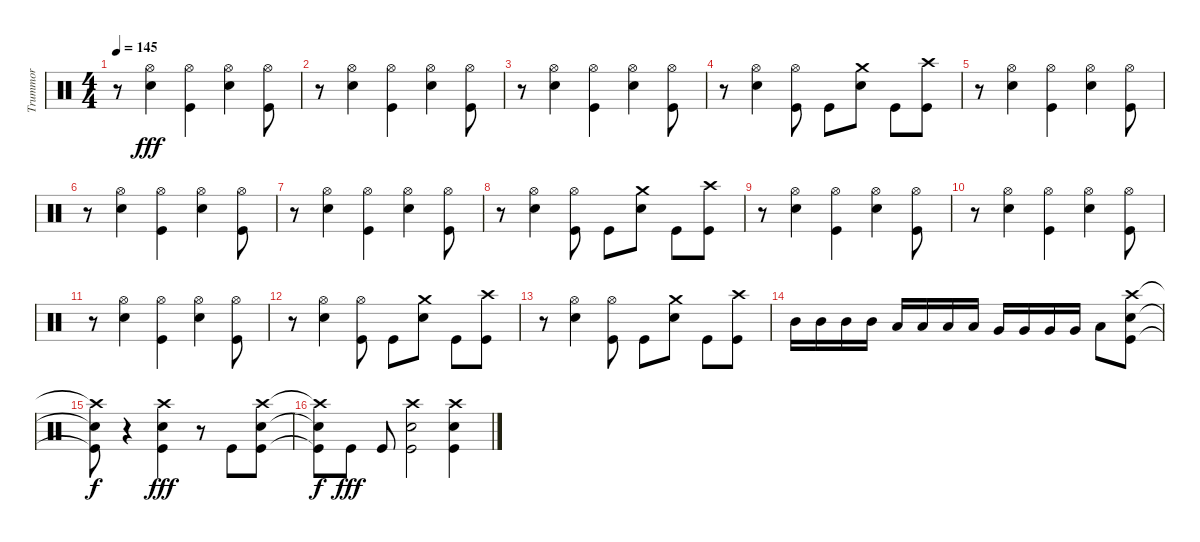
\track ("Trummor" "Trummor") {instrument percussion}
\staff {score}
\articulation defaults
\ts (4 4)
\tempo 145
\clef neutral
\ks c
r.8{dy fff} ("Hi-Hat (open)" "Snare (hit) 2").4 ("Hi-Hat (open)" "Kick (hit)").4 ("Hi-Hat (open)" "Snare (hit) 2").4 ("Hi-Hat (open)" "Kick (hit)").8 |
r.8 ("Hi-Hat (open)" "Snare (hit) 2").4 ("Hi-Hat (open)" "Kick (hit)").4 ("Hi-Hat (open)" "Snare (hit) 2").4 ("Hi-Hat (open)" "Kick (hit)").8 |
r.8 ("Hi-Hat (open)" "Snare (hit) 2").4 ("Hi-Hat (open)" "Kick (hit)").4 ("Hi-Hat (open)" "Snare (hit) 2").4 ("Hi-Hat (open)" "Kick (hit)").8 |
r.8 ("Hi-Hat (open)" "Snare (hit) 2").4 ("Hi-Hat (open)" "Kick (hit)").8 "Kick (hit)".8 ("Crash medium (hit)" "Snare (hit) 2").8 "Kick (hit)".8 ("Crash high (hit)" "Kick (hit)").8 |
r.8 ("Hi-Hat (open)" "Snare (hit) 2").4 ("Hi-Hat (open)" "Kick (hit)").4 ("Hi-Hat (open)" "Snare (hit) 2").4 ("Hi-Hat (open)" "Kick (hit)").8 |
r.8 ("Hi-Hat (open)" "Snare (hit) 2").4 ("Hi-Hat (open)" "Kick (hit)").4 ("Hi-Hat (open)" "Snare (hit) 2").4 ("Hi-Hat (open)" "Kick (hit)").8 |
r.8 ("Hi-Hat (open)" "Snare (hit) 2").4 ("Hi-Hat (open)" "Kick (hit)").4 ("Hi-Hat (open)" "Snare (hit) 2").4 ("Hi-Hat (open)" "Kick (hit)").8 |
r.8 ("Hi-Hat (open)" "Snare (hit) 2").4 ("Hi-Hat (open)" "Kick (hit)").8 "Kick (hit)".8 ("Crash medium (hit)" "Snare (hit) 2").8 "Kick (hit)".8 ("Crash high (hit)" "Kick (hit)").8 |
r.8 ("Hi-Hat (open)" "Snare (hit) 2").4 ("Hi-Hat (open)" "Kick (hit)").4 ("Hi-Hat (open)" "Snare (hit) 2").4 ("Hi-Hat (open)" "Kick (hit)").8 |
r.8 ("Hi-Hat (open)" "Snare (hit) 2").4 ("Hi-Hat (open)" "Kick (hit)").4 ("Hi-Hat (open)" "Snare (hit) 2").4 ("Hi-Hat (open)" "Kick (hit)").8 |
r.8 ("Hi-Hat (open)" "Snare (hit) 2").4 ("Hi-Hat (open)" "Kick (hit)").4 ("Hi-Hat (open)" "Snare (hit) 2").4 ("Hi-Hat (open)" "Kick (hit)").8 |
r.8 ("Hi-Hat (open)" "Snare (hit) 2").4 ("Hi-Hat (open)" "Kick (hit)").8 "Kick (hit)".8 ("Crash medium (hit)" "Snare (hit) 2").8 "Kick (hit)".8 ("Crash high (hit)" "Kick (hit)").8 |
r.8 ("Hi-Hat (open)" "Snare (hit) 2").4 ("Hi-Hat (open)" "Kick (hit)").8 "Kick (hit)".8 ("Crash medium (hit)" "Snare (hit) 2").8 "Kick (hit)".8 ("Crash high (hit)" "Kick (hit)").8 |
"Mid Tom (hit)".16 "Mid Tom (hit)".16 "Mid Tom (hit)".16 "Mid Tom (hit)".16 "Low Tom (hit)".16 "Low Tom (hit)".16 "Low Tom (hit)".16 "Low Tom (hit)".16 "Very Low Tom (hit)".16 "Very Low Tom (hit)".16 "Very Low Tom (hit)".16 "Very Low Tom (hit)".16 "Low Floor Tom (hit)".8 ("Snare (hit) 2" "Crash high (hit)" "Kick (hit)").8 |
("Snare (hit) 2"{t} "Crash high (hit)"{t} "Kick (hit)"{t}).8{dy f} r.4 ("Snare (hit) 2" "Crash high (hit)" "Kick (hit)").4{dy fff} r.8 "Kick (hit)".8 ("Snare (hit) 2" "Crash high (hit)" "Kick (hit)").8 |
("Snare (hit) 2"{t} "Crash high (hit)"{t} "Kick (hit)"{t}).8{dy f} "Kick (hit)".8{dy fff} "Kick (hit)".8 ("Snare (hit) 2" "Crash high (hit)" "Kick (hit)").2 ("Snare (hit) 2" "Crash high (hit)" "Kick (hit)").4
